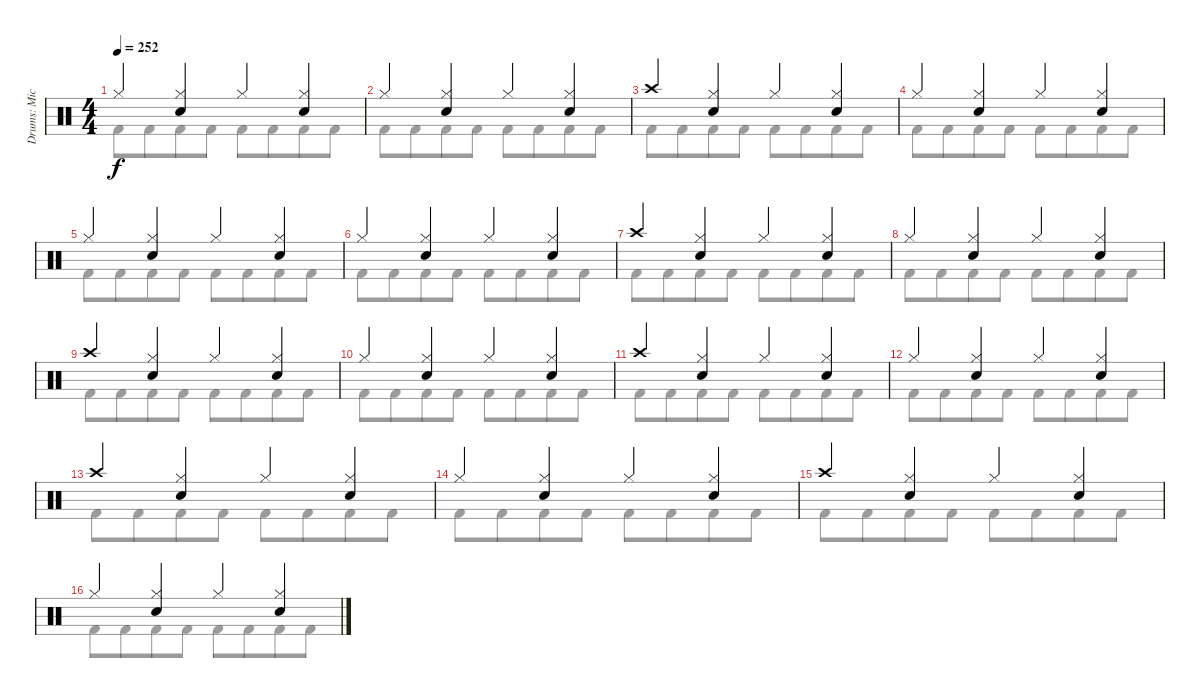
\track ("Drums: Mick" "Drums: Mic") {instrument percussion}
\staff {score}
\articulation defaults
\voice
\ts (4 4)
\tempo 252
\clef neutral
\ks c "Hi-Hat (closed)".4{dy f}
("Hi-Hat (closed)" "Snare (hit) 2").4 "Hi-Hat (closed)".4 ("Hi-Hat (closed)" "Snare (hit) 2").4 |
"Hi-Hat (closed)".4 ("Hi-Hat (closed)" "Snare (hit) 2").4 "Hi-Hat (closed)".4 ("Hi-Hat (closed)" "Snare (hit) 2").4 |
"Crash high (hit)".4 ("Hi-Hat (closed)" "Snare (hit) 2").4 "Hi-Hat (closed)".4 ("Hi-Hat (closed)" "Snare (hit) 2").4 |
"Hi-Hat (closed)".4 ("Hi-Hat (closed)" "Snare (hit) 2").4 "Hi-Hat (closed)".4 ("Hi-Hat (closed)" "Snare (hit) 2").4 |
"Hi-Hat (closed)".4 ("Hi-Hat (closed)" "Snare (hit) 2").4 "Hi-Hat (closed)".4 ("Hi-Hat (closed)" "Snare (hit) 2").4 |
"Hi-Hat (closed)".4 ("Hi-Hat (closed)" "Snare (hit) 2").4 "Hi-Hat (closed)".4 ("Hi-Hat (closed)" "Snare (hit) 2").4 |
"Crash high (hit)".4 ("Hi-Hat (closed)" "Snare (hit) 2").4 "Hi-Hat (closed)".4 ("Hi-Hat (closed)" "Snare (hit) 2").4 |
"Hi-Hat (closed)".4 ("Hi-Hat (closed)" "Snare (hit) 2").4 "Hi-Hat (closed)".4 ("Hi-Hat (closed)" "Snare (hit) 2").4 |
"Crash high (hit)".4 ("Hi-Hat (closed)" "Snare (hit) 2").4 "Hi-Hat (closed)".4 ("Hi-Hat (closed)" "Snare (hit) 2").4 |
"Hi-Hat (closed)".4 ("Hi-Hat (closed)" "Snare (hit) 2").4 "Hi-Hat (closed)".4 ("Hi-Hat (closed)" "Snare (hit) 2").4 |
"Crash high (hit)".4 ("Hi-Hat (closed)" "Snare (hit) 2").4 "Hi-Hat (closed)".4 ("Hi-Hat (closed)" "Snare (hit) 2").4 |
"Hi-Hat (closed)".4 ("Hi-Hat (closed)" "Snare (hit) 2").4 "Hi-Hat (closed)".4 ("Hi-Hat (closed)" "Snare (hit) 2").4 |
"Crash high (hit)".4 ("Hi-Hat (closed)" "Snare (hit) 2").4 "Hi-Hat (closed)".4 ("Hi-Hat (closed)" "Snare (hit) 2").4 |
"Hi-Hat (closed)".4 ("Hi-Hat (closed)" "Snare (hit) 2").4 "Hi-Hat (closed)".4 ("Hi-Hat (closed)" "Snare (hit) 2").4 |
"Crash high (hit)".4 ("Hi-Hat (closed)" "Snare (hit) 2").4 "Hi-Hat (closed)".4 ("Hi-Hat (closed)" "Snare (hit) 2").4 |
"Hi-Hat (closed)".4 ("Hi-Hat (closed)" "Snare (hit) 2").4 "Hi-Hat (closed)".4 ("Hi-Hat (closed)" "Snare (hit) 2").4
\voice
\clef neutral
\ottava regular
\simile none
\ks c "Kick (hit) 2".8{dy f} "Kick (hit) 2".8{beam merge} "Kick (hit) 2".8 "Kick (hit) 2".8 "Kick (hit) 2".8 "Kick (hit) 2".8{beam merge} "Kick (hit) 2".8 "Kick (hit) 2".8
|
"Kick (hit) 2".8 "Kick (hit) 2".8{beam merge} "Kick (hit) 2".8 "Kick (hit) 2".8 "Kick (hit) 2".8 "Kick (hit) 2".8{beam merge} "Kick (hit) 2".8 "Kick (hit) 2".8 |
"Kick (hit) 2".8 "Kick (hit) 2".8{beam merge} "Kick (hit) 2".8 "Kick (hit) 2".8 "Kick (hit) 2".8 "Kick (hit) 2".8{beam merge} "Kick (hit) 2".8 "Kick (hit) 2".8 |
"Kick (hit) 2".8 "Kick (hit) 2".8{beam merge} "Kick (hit) 2".8 "Kick (hit) 2".8 "Kick (hit) 2".8 "Kick (hit) 2".8{beam merge} "Kick (hit) 2".8 "Kick (hit) 2".8 |
"Kick (hit) 2".8 "Kick (hit) 2".8{beam merge} "Kick (hit) 2".8 "Kick (hit) 2".8 "Kick (hit) 2".8 "Kick (hit) 2".8{beam merge} "Kick (hit) 2".8 "Kick (hit) 2".8 |
"Kick (hit) 2".8 "Kick (hit) 2".8{beam merge} "Kick (hit) 2".8 "Kick (hit) 2".8 "Kick (hit) 2".8 "Kick (hit) 2".8{beam merge} "Kick (hit) 2".8 "Kick (hit) 2".8 |
"Kick (hit) 2".8 "Kick (hit) 2".8{beam merge} "Kick (hit) 2".8 "Kick (hit) 2".8 "Kick (hit) 2".8 "Kick (hit) 2".8{beam merge} "Kick (hit) 2".8 "Kick (hit) 2".8 |
"Kick (hit) 2".8 "Kick (hit) 2".8{beam merge} "Kick (hit) 2".8 "Kick (hit) 2".8 "Kick (hit) 2".8 "Kick (hit) 2".8{beam merge} "Kick (hit) 2".8 "Kick (hit) 2".8 |
"Kick (hit) 2".8 "Kick (hit) 2".8{beam merge} "Kick (hit) 2".8 "Kick (hit) 2".8 "Kick (hit) 2".8 "Kick (hit) 2".8{beam merge} "Kick (hit) 2".8 "Kick (hit) 2".8 |
"Kick (hit) 2".8 "Kick (hit) 2".8{beam merge} "Kick (hit) 2".8 "Kick (hit) 2".8 "Kick (hit) 2".8 "Kick (hit) 2".8{beam merge} "Kick (hit) 2".8 "Kick (hit) 2".8 |
"Kick (hit) 2".8 "Kick (hit) 2".8{beam merge} "Kick (hit) 2".8 "Kick (hit) 2".8 "Kick (hit) 2".8 "Kick (hit) 2".8{beam merge} "Kick (hit) 2".8 "Kick (hit) 2".8 |
"Kick (hit) 2".8 "Kick (hit) 2".8{beam merge} "Kick (hit) 2".8 "Kick (hit) 2".8 "Kick (hit) 2".8 "Kick (hit) 2".8{beam merge} "Kick (hit) 2".8 "Kick (hit) 2".8 |
"Kick (hit) 2".8 "Kick (hit) 2".8{beam merge} "Kick (hit) 2".8 "Kick (hit) 2".8 "Kick (hit) 2".8 "Kick (hit) 2".8{beam merge} "Kick (hit) 2".8 "Kick (hit) 2".8 |
"Kick (hit) 2".8 "Kick (hit) 2".8{beam merge} "Kick (hit) 2".8 "Kick (hit) 2".8 "Kick (hit) 2".8 "Kick (hit) 2".8{beam merge} "Kick (hit) 2".8 "Kick (hit) 2".8 |
"Kick (hit) 2".8 "Kick (hit) 2".8{beam merge} "Kick (hit) 2".8 "Kick (hit) 2".8 "Kick (hit) 2".8 "Kick (hit) 2".8{beam merge} "Kick (hit) 2".8 "Kick (hit) 2".8 |
"Kick (hit) 2".8 "Kick (hit) 2".8{beam merge} "Kick (hit) 2".8 "Kick (hit) 2".8 "Kick (hit) 2".8 "Kick (hit) 2".8{beam merge} "Kick (hit) 2".8 "Kick (hit) 2".8
